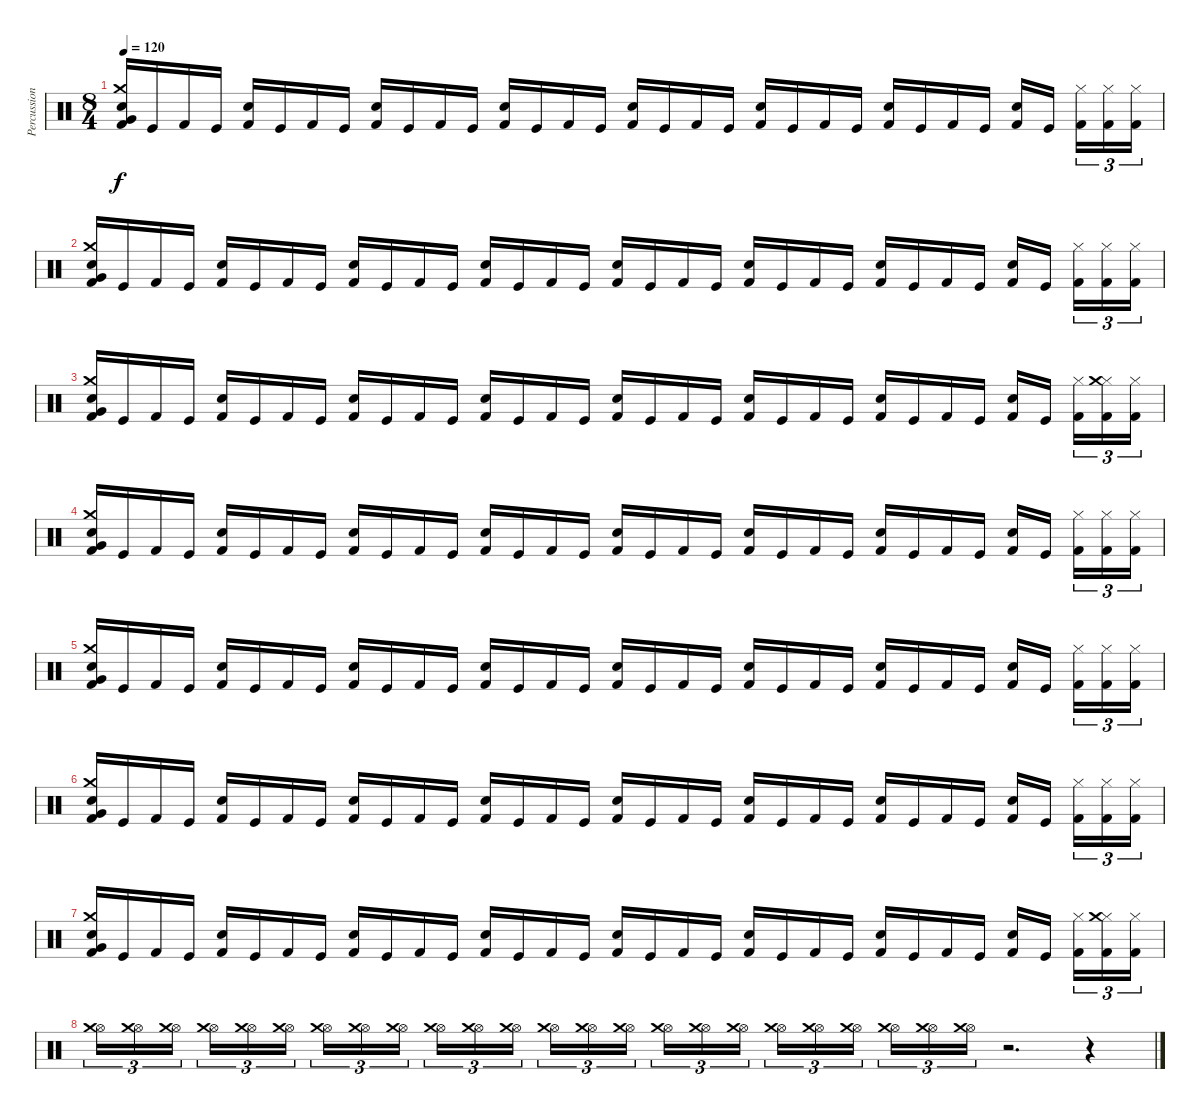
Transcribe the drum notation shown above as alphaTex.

\track ("Percussions" "Percussion") {instrument percussion}
\staff {score}
\articulation defaults
\ts (8 4)
\tempo 120
\clef neutral
\ks c
("Kick (hit) 2" "Very Low Tom (hit)" "Crash medium (hit)" "Electric Snare (hit)").16{dy f} "Kick (hit)".16 "Kick (hit) 2".16 "Kick (hit)".16 ("Kick (hit) 2" "Electric Snare (hit)").16 "Kick (hit)".16 "Kick (hit) 2".16 "Kick (hit)".16 ("Kick (hit) 2" "Electric Snare (hit)").16 "Kick (hit)".16 "Kick (hit) 2".16 "Kick (hit)".16 ("Kick (hit) 2" "Electric Snare (hit)").16 "Kick (hit)".16 "Kick (hit) 2".16 "Kick (hit)".16 ("Kick (hit) 2" "Electric Snare (hit)").16 "Kick (hit)".16 "Kick (hit) 2".16 "Kick (hit)".16 ("Kick (hit) 2" "Electric Snare (hit)").16 "Kick (hit)".16 "Kick (hit) 2".16 "Kick (hit)".16 ("Kick (hit) 2" "Electric Snare (hit)").16 "Kick (hit)".16 "Kick (hit) 2".16 "Kick (hit)".16 ("Kick (hit) 2" "Electric Snare (hit)").16 "Kick (hit)".16 ("Kick (hit) 2" "Hi-Hat (closed)").16{tu (3 2)} ("Kick (hit) 2" "Hi-Hat (closed)").16{tu (3 2)} ("Kick (hit) 2" "Hi-Hat (closed)").16{tu (3 2)} |
("Kick (hit) 2" "Very Low Tom (hit)" "Crash medium (hit)" "Electric Snare (hit)").16 "Kick (hit)".16 "Kick (hit) 2".16 "Kick (hit)".16 ("Kick (hit) 2" "Electric Snare (hit)").16 "Kick (hit)".16 "Kick (hit) 2".16 "Kick (hit)".16 ("Kick (hit) 2" "Electric Snare (hit)").16 "Kick (hit)".16 "Kick (hit) 2".16 "Kick (hit)".16 ("Kick (hit) 2" "Electric Snare (hit)").16 "Kick (hit)".16 "Kick (hit) 2".16 "Kick (hit)".16 ("Kick (hit) 2" "Electric Snare (hit)").16 "Kick (hit)".16 "Kick (hit) 2".16 "Kick (hit)".16 ("Kick (hit) 2" "Electric Snare (hit)").16 "Kick (hit)".16 "Kick (hit) 2".16 "Kick (hit)".16 ("Kick (hit) 2" "Electric Snare (hit)").16 "Kick (hit)".16 "Kick (hit) 2".16 "Kick (hit)".16 ("Kick (hit) 2" "Electric Snare (hit)").16 "Kick (hit)".16 ("Kick (hit) 2" "Hi-Hat (closed)").16{tu (3 2)} ("Kick (hit) 2" "Hi-Hat (closed)").16{tu (3 2)} ("Kick (hit) 2" "Hi-Hat (closed)").16{tu (3 2)} |
("Kick (hit) 2" "Very Low Tom (hit)" "Crash medium (hit)" "Electric Snare (hit)").16 "Kick (hit)".16 "Kick (hit) 2".16 "Kick (hit)".16 ("Kick (hit) 2" "Electric Snare (hit)").16 "Kick (hit)".16 "Kick (hit) 2".16 "Kick (hit)".16 ("Kick (hit) 2" "Electric Snare (hit)").16 "Kick (hit)".16 "Kick (hit) 2".16 "Kick (hit)".16 ("Kick (hit) 2" "Electric Snare (hit)").16 "Kick (hit)".16 "Kick (hit) 2".16 "Kick (hit)".16 ("Kick (hit) 2" "Electric Snare (hit)").16 "Kick (hit)".16 "Kick (hit) 2".16 "Kick (hit)".16 ("Kick (hit) 2" "Electric Snare (hit)").16 "Kick (hit)".16 "Kick (hit) 2".16 "Kick (hit)".16 ("Kick (hit) 2" "Electric Snare (hit)").16 "Kick (hit)".16 "Kick (hit) 2".16 "Kick (hit)".16 ("Kick (hit) 2" "Electric Snare (hit)").16 "Kick (hit)".16 ("Kick (hit) 2" "Hi-Hat (closed)").16{tu (3 2)} ("Kick (hit) 2" "Hi-Hat (closed)" "Crash medium (hit)").16{tu (3 2)} ("Kick (hit) 2" "Hi-Hat (closed)").16{tu (3 2)} |
("Kick (hit) 2" "Very Low Tom (hit)" "Crash medium (hit)" "Electric Snare (hit)").16 "Kick (hit)".16 "Kick (hit) 2".16 "Kick (hit)".16 ("Kick (hit) 2" "Electric Snare (hit)").16 "Kick (hit)".16 "Kick (hit) 2".16 "Kick (hit)".16 ("Kick (hit) 2" "Electric Snare (hit)").16 "Kick (hit)".16 "Kick (hit) 2".16 "Kick (hit)".16 ("Kick (hit) 2" "Electric Snare (hit)").16 "Kick (hit)".16 "Kick (hit) 2".16 "Kick (hit)".16 ("Kick (hit) 2" "Electric Snare (hit)").16 "Kick (hit)".16 "Kick (hit) 2".16 "Kick (hit)".16 ("Kick (hit) 2" "Electric Snare (hit)").16 "Kick (hit)".16 "Kick (hit) 2".16 "Kick (hit)".16 ("Kick (hit) 2" "Electric Snare (hit)").16 "Kick (hit)".16 "Kick (hit) 2".16 "Kick (hit)".16 ("Kick (hit) 2" "Electric Snare (hit)").16 "Kick (hit)".16 ("Kick (hit) 2" "Hi-Hat (closed)").16{tu (3 2)} ("Kick (hit) 2" "Hi-Hat (closed)").16{tu (3 2)} ("Kick (hit) 2" "Hi-Hat (closed)").16{tu (3 2)} |
("Kick (hit) 2" "Very Low Tom (hit)" "Crash medium (hit)" "Electric Snare (hit)").16 "Kick (hit)".16 "Kick (hit) 2".16 "Kick (hit)".16 ("Kick (hit) 2" "Electric Snare (hit)").16 "Kick (hit)".16 "Kick (hit) 2".16 "Kick (hit)".16 ("Kick (hit) 2" "Electric Snare (hit)").16 "Kick (hit)".16 "Kick (hit) 2".16 "Kick (hit)".16 ("Kick (hit) 2" "Electric Snare (hit)").16 "Kick (hit)".16 "Kick (hit) 2".16 "Kick (hit)".16 ("Kick (hit) 2" "Electric Snare (hit)").16 "Kick (hit)".16 "Kick (hit) 2".16 "Kick (hit)".16 ("Kick (hit) 2" "Electric Snare (hit)").16 "Kick (hit)".16 "Kick (hit) 2".16 "Kick (hit)".16 ("Kick (hit) 2" "Electric Snare (hit)").16 "Kick (hit)".16 "Kick (hit) 2".16 "Kick (hit)".16 ("Kick (hit) 2" "Electric Snare (hit)").16 "Kick (hit)".16 ("Kick (hit) 2" "Hi-Hat (closed)").16{tu (3 2)} ("Kick (hit) 2" "Hi-Hat (closed)").16{tu (3 2)} ("Kick (hit) 2" "Hi-Hat (closed)").16{tu (3 2)} |
("Kick (hit) 2" "Very Low Tom (hit)" "Crash medium (hit)" "Electric Snare (hit)").16 "Kick (hit)".16 "Kick (hit) 2".16 "Kick (hit)".16 ("Kick (hit) 2" "Electric Snare (hit)").16 "Kick (hit)".16 "Kick (hit) 2".16 "Kick (hit)".16 ("Kick (hit) 2" "Electric Snare (hit)").16 "Kick (hit)".16 "Kick (hit) 2".16 "Kick (hit)".16 ("Kick (hit) 2" "Electric Snare (hit)").16 "Kick (hit)".16 "Kick (hit) 2".16 "Kick (hit)".16 ("Kick (hit) 2" "Electric Snare (hit)").16 "Kick (hit)".16 "Kick (hit) 2".16 "Kick (hit)".16 ("Kick (hit) 2" "Electric Snare (hit)").16 "Kick (hit)".16 "Kick (hit) 2".16 "Kick (hit)".16 ("Kick (hit) 2" "Electric Snare (hit)").16 "Kick (hit)".16 "Kick (hit) 2".16 "Kick (hit)".16 ("Kick (hit) 2" "Electric Snare (hit)").16 "Kick (hit)".16 ("Kick (hit) 2" "Hi-Hat (closed)").16{tu (3 2)} ("Kick (hit) 2" "Hi-Hat (closed)").16{tu (3 2)} ("Kick (hit) 2" "Hi-Hat (closed)").16{tu (3 2)} |
("Kick (hit) 2" "Very Low Tom (hit)" "Crash medium (hit)" "Electric Snare (hit)").16 "Kick (hit)".16 "Kick (hit) 2".16 "Kick (hit)".16 ("Kick (hit) 2" "Electric Snare (hit)").16 "Kick (hit)".16 "Kick (hit) 2".16 "Kick (hit)".16 ("Kick (hit) 2" "Electric Snare (hit)").16 "Kick (hit)".16 "Kick (hit) 2".16 "Kick (hit)".16 ("Kick (hit) 2" "Electric Snare (hit)").16 "Kick (hit)".16 "Kick (hit) 2".16 "Kick (hit)".16 ("Kick (hit) 2" "Electric Snare (hit)").16 "Kick (hit)".16 "Kick (hit) 2".16 "Kick (hit)".16 ("Kick (hit) 2" "Electric Snare (hit)").16 "Kick (hit)".16 "Kick (hit) 2".16 "Kick (hit)".16 ("Kick (hit) 2" "Electric Snare (hit)").16 "Kick (hit)".16 "Kick (hit) 2".16 "Kick (hit)".16 ("Kick (hit) 2" "Electric Snare (hit)").16 "Kick (hit)".16 ("Kick (hit) 2" "Hi-Hat (closed)").16{tu (3 2)} ("Kick (hit) 2" "Hi-Hat (closed)" "Crash medium (hit)").16{tu (3 2)} ("Kick (hit) 2" "Hi-Hat (closed)").16{tu (3 2)} |
("Hi-Hat (open)" "Crash medium (hit)").16{tu (3 2) volume 15} ("Hi-Hat (open)" "Crash medium (hit)").16{tu (3 2)} ("Hi-Hat (open)" "Crash medium (hit)").16{tu (3 2)} ("Hi-Hat (open)" "Crash medium (hit)").16{tu (3 2) volume 14} ("Hi-Hat (open)" "Crash medium (hit)").16{tu (3 2)} ("Hi-Hat (open)" "Crash medium (hit)").16{tu (3 2)} ("Hi-Hat (open)" "Crash medium (hit)").16{tu (3 2) volume 12} ("Hi-Hat (open)" "Crash medium (hit)").16{tu (3 2)} ("Hi-Hat (open)" "Crash medium (hit)").16{tu (3 2)} ("Hi-Hat (open)" "Crash medium (hit)").16{tu (3 2) volume 11} ("Hi-Hat (open)" "Crash medium (hit)").16{tu (3 2)} ("Hi-Hat (open)" "Crash medium (hit)").16{tu (3 2)} ("Hi-Hat (open)" "Crash medium (hit)").16{tu (3 2) volume 10} ("Hi-Hat (open)" "Crash medium (hit)").16{tu (3 2)} ("Hi-Hat (open)" "Crash medium (hit)").16{tu (3 2)} ("Hi-Hat (open)" "Crash medium (hit)").16{tu (3 2) volume 9} ("Hi-Hat (open)" "Crash medium (hit)").16{tu (3 2)} ("Hi-Hat (open)" "Crash medium (hit)").16{tu (3 2)} ("Hi-Hat (open)" "Crash medium (hit)").16{tu (3 2)} ("Hi-Hat (open)" "Crash medium (hit)").16{tu (3 2)} ("Hi-Hat (open)" "Crash medium (hit)").16{tu (3 2)} ("Hi-Hat (open)" "Crash medium (hit)").16{tu (3 2)} ("Hi-Hat (open)" "Crash medium (hit)").16{tu (3 2)} ("Hi-Hat (open)" "Crash medium (hit)").16{tu (3 2)} r.2{d} r.4
